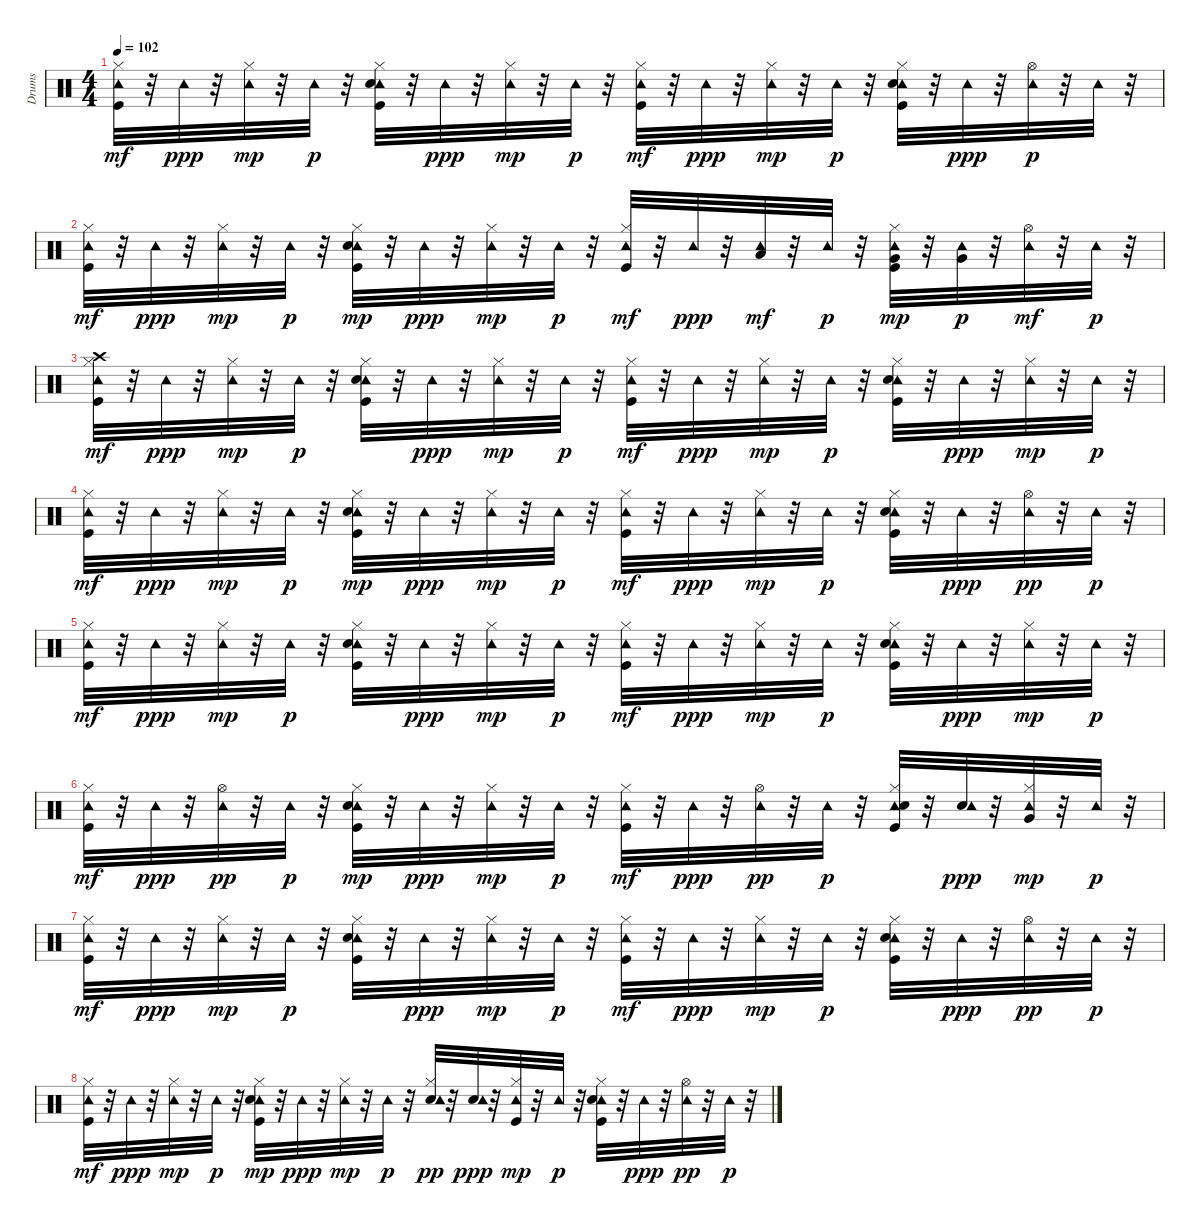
\track ("Drums" "Drums") {instrument percussion}
\staff {score}
\articulation defaults
\ts (4 4)
\tempo 102
\clef neutral
\ks c
("Tambourine (hit)" "Hi-Hat (closed)" "Kick (hit)").32{dy mf} r.32 "Tambourine (hit)".32{dy ppp} r.32 ("Tambourine (hit)" "Hi-Hat (closed)").32{dy mp} r.32 "Tambourine (hit)".32{dy p} r.32 ("Tambourine (hit)" "Hi-Hat (closed)" "Electric Snare (hit)" "Kick (hit)").32 r.32 "Tambourine (hit)".32{dy ppp} r.32 ("Tambourine (hit)" "Hi-Hat (closed)").32{dy mp} r.32 "Tambourine (hit)".32{dy p} r.32 ("Tambourine (hit)" "Hi-Hat (closed)" "Kick (hit)").32{dy mf} r.32 "Tambourine (hit)".32{dy ppp} r.32 ("Tambourine (hit)" "Hi-Hat (closed)").32{dy mp} r.32 "Tambourine (hit)".32{dy p} r.32 ("Tambourine (hit)" "Hi-Hat (closed)" "Electric Snare (hit)" "Kick (hit)").32 r.32 "Tambourine (hit)".32{dy ppp} r.32 ("Tambourine (hit)" "Hi-Hat (open)").32{dy p} r.32 "Tambourine (hit)".32 r.32 |
("Tambourine (hit)" "Hi-Hat (closed)" "Kick (hit)").32{dy mf} r.32 "Tambourine (hit)".32{dy ppp} r.32 ("Tambourine (hit)" "Hi-Hat (closed)").32{dy mp} r.32 "Tambourine (hit)".32{dy p} r.32 ("Tambourine (hit)" "Hi-Hat (closed)" "Electric Snare (hit)" "Kick (hit)").32{dy mp} r.32 "Tambourine (hit)".32{dy ppp} r.32 ("Tambourine (hit)" "Hi-Hat (closed)").32{dy mp} r.32 "Tambourine (hit)".32{dy p} r.32 ("Tambourine (hit)" "Hi-Hat (closed)" "Kick (hit)").32{dy mf} r.32 "Tambourine (hit)".32{dy ppp} r.32 ("Tambourine (hit)" "Low Tom (hit)").32{dy mf} r.32 "Tambourine (hit)".32{dy p} r.32 ("Tambourine (hit)" "Very Low Tom (hit)" "Hi-Hat (closed)" "Kick (hit)").32{dy mp} r.32 ("Tambourine (hit)" "Very Low Tom (hit)").32{dy p} r.32 ("Tambourine (hit)" "Hi-Hat (open)").32{dy mf} r.32 "Tambourine (hit)".32{dy p} r.32 |
("Crash high (hit)" "Tambourine (hit)" "Hi-Hat (closed)" "Kick (hit)").32{dy mf} r.32 "Tambourine (hit)".32{dy ppp} r.32 ("Tambourine (hit)" "Hi-Hat (closed)").32{dy mp} r.32 "Tambourine (hit)".32{dy p} r.32 ("Tambourine (hit)" "Hi-Hat (closed)" "Electric Snare (hit)" "Kick (hit)").32 r.32 "Tambourine (hit)".32{dy ppp} r.32 ("Tambourine (hit)" "Hi-Hat (closed)").32{dy mp} r.32 "Tambourine (hit)".32{dy p} r.32 ("Tambourine (hit)" "Hi-Hat (closed)" "Kick (hit)").32{dy mf} r.32 "Tambourine (hit)".32{dy ppp} r.32 ("Tambourine (hit)" "Hi-Hat (closed)").32{dy mp} r.32 "Tambourine (hit)".32{dy p} r.32 ("Tambourine (hit)" "Hi-Hat (closed)" "Electric Snare (hit)" "Kick (hit)").32 r.32 "Tambourine (hit)".32{dy ppp} r.32 ("Tambourine (hit)" "Hi-Hat (closed)").32{dy mp} r.32 "Tambourine (hit)".32{dy p} r.32 |
("Tambourine (hit)" "Hi-Hat (closed)" "Kick (hit)").32{dy mf} r.32 "Tambourine (hit)".32{dy ppp} r.32 ("Tambourine (hit)" "Hi-Hat (closed)").32{dy mp} r.32 "Tambourine (hit)".32{dy p} r.32 ("Tambourine (hit)" "Hi-Hat (closed)" "Electric Snare (hit)" "Kick (hit)").32{dy mp} r.32 "Tambourine (hit)".32{dy ppp} r.32 ("Tambourine (hit)" "Hi-Hat (closed)").32{dy mp} r.32 "Tambourine (hit)".32{dy p} r.32 ("Tambourine (hit)" "Hi-Hat (closed)" "Kick (hit)").32{dy mf} r.32 "Tambourine (hit)".32{dy ppp} r.32 ("Tambourine (hit)" "Hi-Hat (closed)").32{dy mp} r.32 "Tambourine (hit)".32{dy p} r.32 ("Tambourine (hit)" "Hi-Hat (closed)" "Electric Snare (hit)" "Kick (hit)").32 r.32 "Tambourine (hit)".32{dy ppp} r.32 ("Hi-Hat (open)" "Tambourine (hit)").32{dy pp} r.32 "Tambourine (hit)".32{dy p} r.32 |
("Tambourine (hit)" "Hi-Hat (closed)" "Kick (hit)").32{dy mf} r.32 "Tambourine (hit)".32{dy ppp} r.32 ("Tambourine (hit)" "Hi-Hat (closed)").32{dy mp} r.32 "Tambourine (hit)".32{dy p} r.32 ("Tambourine (hit)" "Hi-Hat (closed)" "Electric Snare (hit)" "Kick (hit)").32 r.32 "Tambourine (hit)".32{dy ppp} r.32 ("Tambourine (hit)" "Hi-Hat (closed)").32{dy mp} r.32 "Tambourine (hit)".32{dy p} r.32 ("Tambourine (hit)" "Hi-Hat (closed)" "Kick (hit)").32{dy mf} r.32 "Tambourine (hit)".32{dy ppp} r.32 ("Tambourine (hit)" "Hi-Hat (closed)").32{dy mp} r.32 "Tambourine (hit)".32{dy p} r.32 ("Tambourine (hit)" "Hi-Hat (closed)" "Electric Snare (hit)" "Kick (hit)").32 r.32 "Tambourine (hit)".32{dy ppp} r.32 ("Tambourine (hit)" "Hi-Hat (closed)").32{dy mp} r.32 "Tambourine (hit)".32{dy p} r.32 |
("Tambourine (hit)" "Hi-Hat (closed)" "Kick (hit)").32{dy mf} r.32 "Tambourine (hit)".32{dy ppp} r.32 ("Hi-Hat (open)" "Tambourine (hit)").32{dy pp} r.32 "Tambourine (hit)".32{dy p} r.32 ("Tambourine (hit)" "Hi-Hat (closed)" "Electric Snare (hit)" "Kick (hit)").32{dy mp} r.32 "Tambourine (hit)".32{dy ppp} r.32 ("Tambourine (hit)" "Hi-Hat (closed)").32{dy mp} r.32 "Tambourine (hit)".32{dy p} r.32 ("Tambourine (hit)" "Hi-Hat (closed)" "Kick (hit)").32{dy mf} r.32 "Tambourine (hit)".32{dy ppp} r.32 ("Hi-Hat (open)" "Tambourine (hit)").32{dy pp} r.32 "Tambourine (hit)".32{dy p} r.32 ("Tambourine (hit)" "Hi-Hat (closed)" "Electric Snare (hit)" "Kick (hit)").32 r.32 ("Electric Snare (hit)" "Tambourine (hit)").32{dy ppp} r.32 ("Very Low Tom (hit)" "Tambourine (hit)" "Hi-Hat (closed)").32{dy mp} r.32 "Tambourine (hit)".32{dy p} r.32 |
("Tambourine (hit)" "Hi-Hat (closed)" "Kick (hit)").32{dy mf} r.32 "Tambourine (hit)".32{dy ppp} r.32 ("Tambourine (hit)" "Hi-Hat (closed)").32{dy mp} r.32 "Tambourine (hit)".32{dy p} r.32 ("Tambourine (hit)" "Hi-Hat (closed)" "Electric Snare (hit)" "Kick (hit)").32 r.32 "Tambourine (hit)".32{dy ppp} r.32 ("Tambourine (hit)" "Hi-Hat (closed)").32{dy mp} r.32 "Tambourine (hit)".32{dy p} r.32 ("Tambourine (hit)" "Hi-Hat (closed)" "Kick (hit)").32{dy mf} r.32 "Tambourine (hit)".32{dy ppp} r.32 ("Tambourine (hit)" "Hi-Hat (closed)").32{dy mp} r.32 "Tambourine (hit)".32{dy p} r.32 ("Tambourine (hit)" "Hi-Hat (closed)" "Electric Snare (hit)" "Kick (hit)").32 r.32 "Tambourine (hit)".32{dy ppp} r.32 ("Hi-Hat (open)" "Tambourine (hit)").32{dy pp} r.32 "Tambourine (hit)".32{dy p} r.32 |
("Tambourine (hit)" "Hi-Hat (closed)" "Kick (hit)").32{dy mf} r.32 "Tambourine (hit)".32{dy ppp} r.32 ("Tambourine (hit)" "Hi-Hat (closed)").32{dy mp} r.32 "Tambourine (hit)".32{dy p} r.32 ("Tambourine (hit)" "Hi-Hat (closed)" "Electric Snare (hit)" "Kick (hit)").32{dy mp} r.32 "Tambourine (hit)".32{dy ppp} r.32 ("Tambourine (hit)" "Hi-Hat (closed)").32{dy mp} r.32 "Tambourine (hit)".32{dy p} r.32 ("Electric Snare (hit)" "Tambourine (hit)" "Hi-Hat (closed)").32{dy pp} r.32 ("Electric Snare (hit)" "Tambourine (hit)").32{dy ppp} r.32 ("Kick (hit)" "Tambourine (hit)" "Hi-Hat (closed)").32{dy mp} r.32 "Tambourine (hit)".32{dy p} r.32 ("Tambourine (hit)" "Hi-Hat (closed)" "Electric Snare (hit)" "Kick (hit)").32 r.32 "Tambourine (hit)".32{dy ppp} r.32 ("Hi-Hat (open)" "Tambourine (hit)").32{dy pp} r.32 "Tambourine (hit)".32{dy p} r.32
